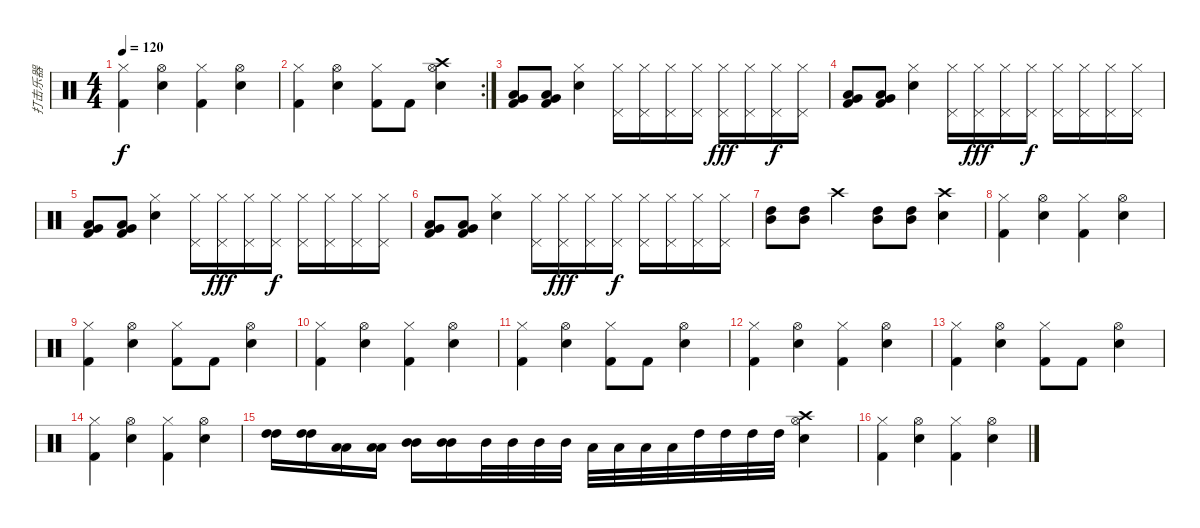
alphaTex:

\track ("打击乐器" "打击乐器") {instrument percussion}
\staff {score}
\articulation defaults
\ts (4 4)
\tempo 120
\clef neutral
\ks c
("Kick (hit) 2" "Hi-Hat (closed)").4{dy f} ("Hi-Hat (open)" "Electric Snare (hit)").4 ("Kick (hit) 2" "Hi-Hat (closed)").4 ("Electric Snare (hit)" "Hi-Hat (open)").4 |
\rc 2
("Kick (hit) 2" "Hi-Hat (closed)").4 ("Hi-Hat (open)" "Electric Snare (hit)").4 ("Kick (hit) 2" "Hi-Hat (closed)").8 "Kick (hit) 2".8 ("Electric Snare (hit)" "Hi-Hat (open)" "Crash high (hit)").4 |
("Low Floor Tom (hit)" "Very Low Tom (hit)" "Kick (hit) 2").8 ("Low Floor Tom (hit)" "Very Low Tom (hit)" "Kick (hit) 2").8 ("Hi-Hat (closed)" "Electric Snare (hit)").4 ("Hi-Hat (closed)" "Pedal Hi-Hat (hit)").16 ("Hi-Hat (closed)" "Pedal Hi-Hat (hit)").16 ("Hi-Hat (closed)" "Pedal Hi-Hat (hit)").16 ("Hi-Hat (closed)" "Pedal Hi-Hat (hit)").16 ("Hi-Hat (closed)" "Pedal Hi-Hat (hit)").16{dy fff} ("Hi-Hat (closed)" "Pedal Hi-Hat (hit)").16 ("Hi-Hat (closed)" "Pedal Hi-Hat (hit)").16{dy f} ("Hi-Hat (closed)" "Pedal Hi-Hat (hit)").16 |
("Low Floor Tom (hit)" "Very Low Tom (hit)" "Kick (hit) 2").8 ("Low Floor Tom (hit)" "Very Low Tom (hit)" "Kick (hit) 2").8 ("Electric Snare (hit)" "Hi-Hat (closed)").4 ("Hi-Hat (closed)" "Pedal Hi-Hat (hit)").16 ("Hi-Hat (closed)" "Pedal Hi-Hat (hit)").16{dy fff} ("Hi-Hat (closed)" "Pedal Hi-Hat (hit)").16 ("Hi-Hat (closed)" "Pedal Hi-Hat (hit)").16{dy f} ("Hi-Hat (closed)" "Pedal Hi-Hat (hit)").16 ("Hi-Hat (closed)" "Pedal Hi-Hat (hit)").16 ("Hi-Hat (closed)" "Pedal Hi-Hat (hit)").16 ("Hi-Hat (closed)" "Pedal Hi-Hat (hit)").16 |
("Low Floor Tom (hit)" "Very Low Tom (hit)" "Kick (hit) 2").8 ("Low Floor Tom (hit)" "Very Low Tom (hit)" "Kick (hit) 2").8 ("Electric Snare (hit)" "Hi-Hat (closed)").4 ("Hi-Hat (closed)" "Pedal Hi-Hat (hit)").16 ("Hi-Hat (closed)" "Pedal Hi-Hat (hit)").16{dy fff} ("Hi-Hat (closed)" "Pedal Hi-Hat (hit)").16 ("Hi-Hat (closed)" "Pedal Hi-Hat (hit)").16{dy f} ("Hi-Hat (closed)" "Pedal Hi-Hat (hit)").16 ("Hi-Hat (closed)" "Pedal Hi-Hat (hit)").16 ("Hi-Hat (closed)" "Pedal Hi-Hat (hit)").16 ("Hi-Hat (closed)" "Pedal Hi-Hat (hit)").16 |
("Low Floor Tom (hit)" "Very Low Tom (hit)" "Kick (hit) 2").8 ("Low Floor Tom (hit)" "Very Low Tom (hit)" "Kick (hit) 2").8 ("Hi-Hat (closed)" "Electric Snare (hit)").4 ("Hi-Hat (closed)" "Pedal Hi-Hat (hit)").16 ("Hi-Hat (closed)" "Pedal Hi-Hat (hit)").16{dy fff} ("Hi-Hat (closed)" "Pedal Hi-Hat (hit)").16 ("Hi-Hat (closed)" "Pedal Hi-Hat (hit)").16{dy f} ("Hi-Hat (closed)" "Pedal Hi-Hat (hit)").16 ("Hi-Hat (closed)" "Pedal Hi-Hat (hit)").16 ("Hi-Hat (closed)" "Pedal Hi-Hat (hit)").16 ("Hi-Hat (closed)" "Pedal Hi-Hat (hit)").16 |
("High Tom (hit)" "Mid Tom (hit)").8 ("High Tom (hit)" "Mid Tom (hit)").8 "Crash high (hit)".4 ("High Tom (hit)" "Mid Tom (hit)").8 ("High Tom (hit)" "Mid Tom (hit)").8 ("Electric Snare (hit)" "Crash high (hit)").4 |
("Kick (hit) 2" "Hi-Hat (closed)").4 ("Hi-Hat (open)" "Electric Snare (hit)").4 ("Kick (hit) 2" "Hi-Hat (closed)").4 ("Electric Snare (hit)" "Hi-Hat (open)").4 |
("Kick (hit) 2" "Hi-Hat (closed)").4 ("Hi-Hat (open)" "Electric Snare (hit)").4 ("Kick (hit) 2" "Hi-Hat (closed)").8 "Kick (hit) 2".8 ("Electric Snare (hit)" "Hi-Hat (open)").4 |
("Kick (hit) 2" "Hi-Hat (closed)").4 ("Hi-Hat (open)" "Electric Snare (hit)").4 ("Kick (hit) 2" "Hi-Hat (closed)").4 ("Electric Snare (hit)" "Hi-Hat (open)").4 |
("Kick (hit) 2" "Hi-Hat (closed)").4 ("Hi-Hat (open)" "Electric Snare (hit)").4 ("Kick (hit) 2" "Hi-Hat (closed)").8 "Kick (hit) 2".8 ("Electric Snare (hit)" "Hi-Hat (open)").4 |
("Kick (hit) 2" "Hi-Hat (closed)").4 ("Hi-Hat (open)" "Electric Snare (hit)").4 ("Kick (hit) 2" "Hi-Hat (closed)").4 ("Electric Snare (hit)" "Hi-Hat (open)").4 |
("Kick (hit) 2" "Hi-Hat (closed)").4 ("Hi-Hat (open)" "Electric Snare (hit)").4 ("Kick (hit) 2" "Hi-Hat (closed)").8 "Kick (hit) 2".8 ("Electric Snare (hit)" "Hi-Hat (open)").4 |
("Kick (hit) 2" "Hi-Hat (closed)").4 ("Hi-Hat (open)" "Electric Snare (hit)").4 ("Kick (hit) 2" "Hi-Hat (closed)").4 ("Electric Snare (hit)" "Hi-Hat (open)").4 |
("High Tom (hit)" "High Tom (hit)").16 ("High Tom (hit)" "High Tom (hit)").16 ("Low Tom (hit)" "Low Tom (hit)").16 ("Low Tom (hit)" "Low Tom (hit)").16 ("Mid Tom (hit)" "Mid Tom (hit)").16 ("Mid Tom (hit)" "Mid Tom (hit)").16 "Mid Tom (hit)".32 "Mid Tom (hit)".32 "Mid Tom (hit)".32 "Mid Tom (hit)".32 "Low Tom (hit)".32 "Low Tom (hit)".32 "Low Tom (hit)".32 "Low Tom (hit)".32 "High Tom (hit)".32 "High Tom (hit)".32 "High Tom (hit)".32 "High Tom (hit)".32 ("Electric Snare (hit)" "Hi-Hat (open)" "Crash high (hit)").4 |
("Kick (hit) 2" "Hi-Hat (closed)").4 ("Hi-Hat (open)" "Electric Snare (hit)").4 ("Kick (hit) 2" "Hi-Hat (closed)").4 ("Electric Snare (hit)" "Hi-Hat (open)").4
